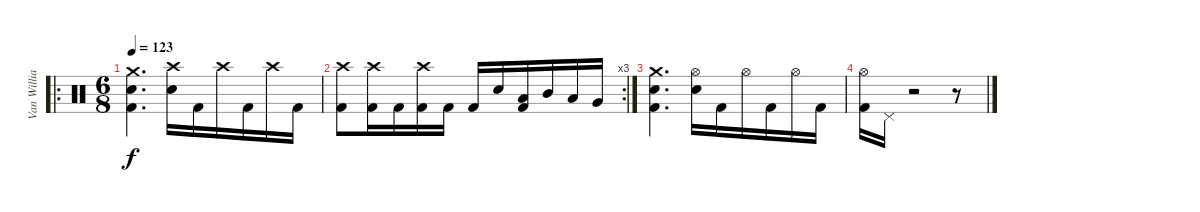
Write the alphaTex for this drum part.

\track ("Van Williams" "Van Willia") {instrument percussion}
\staff {score}
\articulation defaults
\ro
\ts (6 8)
\tempo 123
\clef neutral
\ks c
("Crash medium (hit)" "Electric Snare (hit)" "Kick (hit) 2").4{d dy f} ("Crash high (hit)" "Electric Snare (hit)").16 "Kick (hit) 2".16 "Crash high (hit)".16 "Kick (hit) 2".16 "Crash high (hit)".16 "Kick (hit) 2".16 |
\rc 3
("Crash high (hit)" "Kick (hit) 2").8 ("Crash high (hit)" "Kick (hit) 2").16 "Kick (hit) 2".16 ("Crash high (hit)" "Kick (hit) 2").16 "Kick (hit) 2".16 "Kick (hit) 2".16 "Electric Snare (hit)".16 ("Low Floor Tom (hit)" "Kick (hit) 2").16 "Mid Tom (hit)".16 "Low Tom (hit)".16 "Very Low Tom (hit)".16 |
("Crash medium (hit)" "Electric Snare (hit)" "Kick (hit) 2").4{d} ("Hi-Hat (open)" "Electric Snare (hit)").16 "Kick (hit) 2".16 "Hi-Hat (open)".16 "Kick (hit) 2".16 "Hi-Hat (open)".16 "Kick (hit) 2".16 |
("Hi-Hat (open)" "Kick (hit) 2").16 "Pedal Hi-Hat (hit)".16 r.2 r.8
